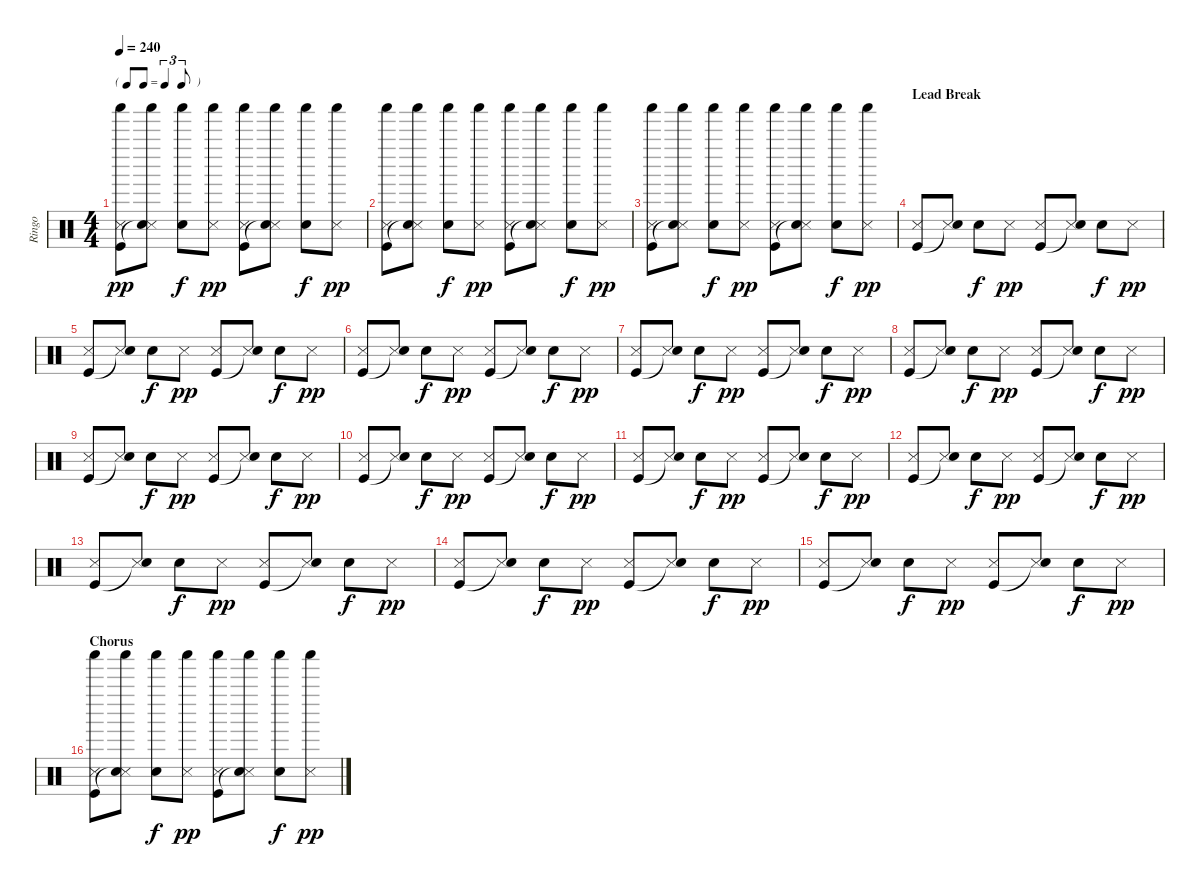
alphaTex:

\track ("Ringo" "Ringo") {instrument percussion}
\staff {score}
\articulation defaults
\ts (4 4)
\tf triplet8th
\tempo 240
\clef neutral
\ks c
("Shaker (hit)" "Snare (side stick) 3" "Kick (hit)").8{dy pp} ("Shaker (hit)" "Snare (side stick) 3" "Snare (hit)"{t}).8 ("Shaker (hit)" "Snare (hit) 2").8{dy f} ("Shaker (hit)" "Snare (side stick) 3").8{dy pp} ("Shaker (hit)" "Snare (side stick) 3" "Kick (hit)").8 ("Shaker (hit)" "Snare (side stick) 3" "Snare (hit)"{t}).8 ("Shaker (hit)" "Snare (hit) 2").8{dy f} ("Shaker (hit)" "Snare (side stick) 3").8{dy pp} |
("Shaker (hit)" "Snare (side stick) 3" "Kick (hit)").8 ("Shaker (hit)" "Snare (side stick) 3" "Snare (hit)"{t}).8 ("Shaker (hit)" "Snare (hit) 2").8{dy f} ("Shaker (hit)" "Snare (side stick) 3").8{dy pp} ("Shaker (hit)" "Snare (side stick) 3" "Kick (hit)").8 ("Shaker (hit)" "Snare (side stick) 3" "Snare (hit)"{t}).8 ("Shaker (hit)" "Snare (hit) 2").8{dy f} ("Shaker (hit)" "Snare (side stick) 3").8{dy pp} |
("Shaker (hit)" "Snare (side stick) 3" "Kick (hit)").8 ("Shaker (hit)" "Snare (side stick) 3" "Snare (hit)"{t}).8 ("Shaker (hit)" "Snare (hit) 2").8{dy f} ("Shaker (hit)" "Snare (side stick) 3").8{dy pp} ("Shaker (hit)" "Snare (side stick) 3" "Kick (hit)").8 ("Shaker (hit)" "Snare (side stick) 3" "Snare (hit)"{t}).8 ("Shaker (hit)" "Snare (hit) 2").8{dy f} ("Shaker (hit)" "Snare (side stick) 3").8{dy pp} |
\section ("" "Lead Break")
("Snare (side stick) 3" "Kick (hit)").8 ("Snare (side stick) 3" "Snare (hit)"{t}).8 "Snare (hit) 2".8{dy f} "Snare (side stick) 3".8{dy pp} ("Snare (side stick) 3" "Kick (hit)").8 ("Snare (side stick) 3" "Snare (hit)"{t}).8 "Snare (hit) 2".8{dy f} "Snare (side stick) 3".8{dy pp} |
("Snare (side stick) 3" "Kick (hit)").8 ("Snare (side stick) 3" "Snare (hit)"{t}).8 "Snare (hit) 2".8{dy f} "Snare (side stick) 3".8{dy pp} ("Snare (side stick) 3" "Kick (hit)").8 ("Snare (side stick) 3" "Snare (hit)"{t}).8 "Snare (hit) 2".8{dy f} "Snare (side stick) 3".8{dy pp} |
("Snare (side stick) 3" "Kick (hit)").8 ("Snare (side stick) 3" "Snare (hit)"{t}).8 "Snare (hit) 2".8{dy f} "Snare (side stick) 3".8{dy pp} ("Snare (side stick) 3" "Kick (hit)").8 ("Snare (side stick) 3" "Snare (hit)"{t}).8 "Snare (hit) 2".8{dy f} "Snare (side stick) 3".8{dy pp} |
("Snare (side stick) 3" "Kick (hit)").8 ("Snare (side stick) 3" "Snare (hit)"{t}).8 "Snare (hit) 2".8{dy f} "Snare (side stick) 3".8{dy pp} ("Snare (side stick) 3" "Kick (hit)").8 ("Snare (side stick) 3" "Snare (hit)"{t}).8 "Snare (hit) 2".8{dy f} "Snare (side stick) 3".8{dy pp} |
("Snare (side stick) 3" "Kick (hit)").8 ("Snare (side stick) 3" "Snare (hit)"{t}).8 "Snare (hit) 2".8{dy f} "Snare (side stick) 3".8{dy pp} ("Snare (side stick) 3" "Kick (hit)").8 ("Snare (side stick) 3" "Snare (hit)"{t}).8 "Snare (hit) 2".8{dy f} "Snare (side stick) 3".8{dy pp} |
("Snare (side stick) 3" "Kick (hit)").8 ("Snare (side stick) 3" "Snare (hit)"{t}).8 "Snare (hit) 2".8{dy f} "Snare (side stick) 3".8{dy pp} ("Snare (side stick) 3" "Kick (hit)").8 ("Snare (side stick) 3" "Snare (hit)"{t}).8 "Snare (hit) 2".8{dy f} "Snare (side stick) 3".8{dy pp} |
("Snare (side stick) 3" "Kick (hit)").8 ("Snare (side stick) 3" "Snare (hit)"{t}).8 "Snare (hit) 2".8{dy f} "Snare (side stick) 3".8{dy pp} ("Snare (side stick) 3" "Kick (hit)").8 ("Snare (side stick) 3" "Snare (hit)"{t}).8 "Snare (hit) 2".8{dy f} "Snare (side stick) 3".8{dy pp} |
("Snare (side stick) 3" "Kick (hit)").8 ("Snare (side stick) 3" "Snare (hit)"{t}).8 "Snare (hit) 2".8{dy f} "Snare (side stick) 3".8{dy pp} ("Snare (side stick) 3" "Kick (hit)").8 ("Snare (side stick) 3" "Snare (hit)"{t}).8 "Snare (hit) 2".8{dy f} "Snare (side stick) 3".8{dy pp} |
("Snare (side stick) 3" "Kick (hit)").8 ("Snare (side stick) 3" "Snare (hit)"{t}).8 "Snare (hit) 2".8{dy f} "Snare (side stick) 3".8{dy pp} ("Snare (side stick) 3" "Kick (hit)").8 ("Snare (side stick) 3" "Snare (hit)"{t}).8 "Snare (hit) 2".8{dy f} "Snare (side stick) 3".8{dy pp} |
("Snare (side stick) 3" "Kick (hit)").8 ("Snare (side stick) 3" "Snare (hit)"{t}).8 "Snare (hit) 2".8{dy f} "Snare (side stick) 3".8{dy pp} ("Snare (side stick) 3" "Kick (hit)").8 ("Snare (side stick) 3" "Snare (hit)"{t}).8 "Snare (hit) 2".8{dy f} "Snare (side stick) 3".8{dy pp} |
("Snare (side stick) 3" "Kick (hit)").8 ("Snare (side stick) 3" "Snare (hit)"{t}).8 "Snare (hit) 2".8{dy f} "Snare (side stick) 3".8{dy pp} ("Snare (side stick) 3" "Kick (hit)").8 ("Snare (side stick) 3" "Snare (hit)"{t}).8 "Snare (hit) 2".8{dy f} "Snare (side stick) 3".8{dy pp} |
("Snare (side stick) 3" "Kick (hit)").8 ("Snare (side stick) 3" "Snare (hit)"{t}).8 "Snare (hit) 2".8{dy f} "Snare (side stick) 3".8{dy pp} ("Snare (side stick) 3" "Kick (hit)").8 ("Snare (side stick) 3" "Snare (hit)"{t}).8 "Snare (hit) 2".8{dy f} "Snare (side stick) 3".8{dy pp} |
\section ("" "Chorus")
("Shaker (hit)" "Snare (side stick) 3" "Kick (hit)").8 ("Shaker (hit)" "Snare (side stick) 3" "Snare (hit)"{t}).8 ("Shaker (hit)" "Snare (hit) 2").8{dy f} ("Shaker (hit)" "Snare (side stick) 3").8{dy pp} ("Shaker (hit)" "Snare (side stick) 3" "Kick (hit)").8 ("Shaker (hit)" "Snare (side stick) 3" "Snare (hit)"{t}).8 ("Shaker (hit)" "Snare (hit) 2").8{dy f} ("Shaker (hit)" "Snare (side stick) 3").8{dy pp}
